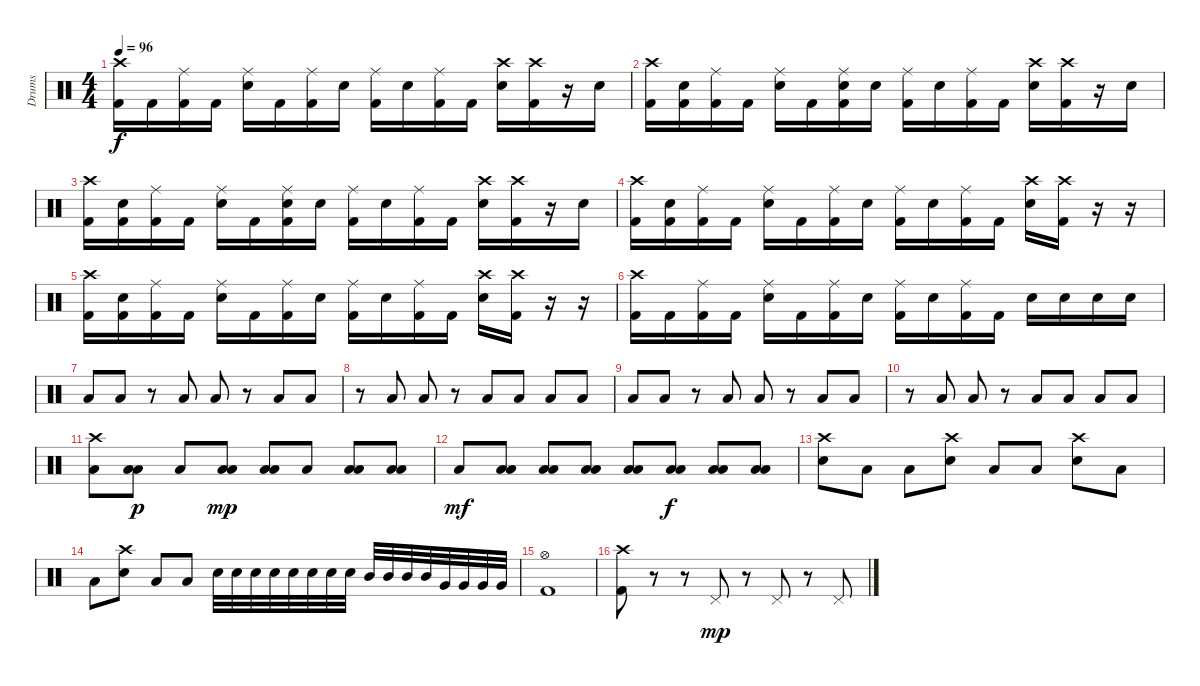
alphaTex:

\track ("Drums" "Drums") {instrument percussion}
\staff {score}
\articulation defaults
\ts (4 4)
\tempo 96
\clef neutral
\ks c
("Crash high (hit)" "Kick (hit) 2").16{dy f} "Kick (hit) 2".16 ("Ride (middle)" "Kick (hit) 2").16 "Kick (hit) 2".16 ("Ride (middle)" "Electric Snare (hit)").16 "Kick (hit) 2".16 ("Ride (middle)" "Kick (hit) 2").16 "Electric Snare (hit)".16 ("Ride (middle)" "Kick (hit) 2").16 "Electric Snare (hit)".16 ("Ride (middle)" "Kick (hit) 2").16 "Kick (hit) 2".16 ("Crash high (hit)" "Electric Snare (hit)").16 ("Crash high (hit)" "Kick (hit) 2").16 r.16 "Electric Snare (hit)".16 |
("Crash high (hit)" "Kick (hit) 2").16 ("Electric Snare (hit)" "Kick (hit) 2").16 ("Ride (middle)" "Kick (hit) 2").16 "Kick (hit) 2".16 ("Ride (middle)" "Electric Snare (hit)").16 "Kick (hit) 2".16 ("Ride (middle)" "Electric Snare (hit)" "Kick (hit) 2").16 "Electric Snare (hit)".16 ("Ride (middle)" "Kick (hit) 2").16 "Electric Snare (hit)".16 ("Ride (middle)" "Kick (hit) 2").16 "Kick (hit) 2".16 ("Crash high (hit)" "Electric Snare (hit)").16 ("Crash high (hit)" "Kick (hit) 2").16 r.16 "Electric Snare (hit)".16 |
("Crash high (hit)" "Kick (hit) 2").16 ("Electric Snare (hit)" "Kick (hit) 2").16 ("Ride (middle)" "Kick (hit) 2").16 "Kick (hit) 2".16 ("Ride (middle)" "Electric Snare (hit)").16 "Kick (hit) 2".16 ("Ride (middle)" "Electric Snare (hit)" "Kick (hit) 2").16 "Electric Snare (hit)".16 ("Ride (middle)" "Kick (hit) 2").16 "Electric Snare (hit)".16 ("Ride (middle)" "Kick (hit) 2").16 "Kick (hit) 2".16 ("Crash high (hit)" "Electric Snare (hit)").16 ("Crash high (hit)" "Kick (hit) 2").16 r.16 "Electric Snare (hit)".16 |
("Crash high (hit)" "Kick (hit) 2").16 ("Electric Snare (hit)" "Kick (hit) 2").16 ("Ride (middle)" "Kick (hit) 2").16 "Kick (hit) 2".16 ("Ride (middle)" "Electric Snare (hit)").16 "Kick (hit) 2".16 ("Ride (middle)" "Kick (hit) 2").16 "Electric Snare (hit)".16 ("Ride (middle)" "Kick (hit) 2").16 "Electric Snare (hit)".16 ("Ride (middle)" "Kick (hit) 2").16 "Kick (hit) 2".16 ("Crash high (hit)" "Electric Snare (hit)").16 ("Crash high (hit)" "Kick (hit) 2").16 r.16 r.16 |
("Crash high (hit)" "Kick (hit) 2").16 ("Electric Snare (hit)" "Kick (hit) 2").16 ("Ride (middle)" "Kick (hit) 2").16 "Kick (hit) 2".16 ("Ride (middle)" "Electric Snare (hit)").16 "Kick (hit) 2".16 ("Ride (middle)" "Kick (hit) 2").16 "Electric Snare (hit)".16 ("Ride (middle)" "Kick (hit) 2").16 "Electric Snare (hit)".16 ("Ride (middle)" "Kick (hit) 2").16 "Kick (hit) 2".16 ("Crash high (hit)" "Electric Snare (hit)").16 ("Crash high (hit)" "Kick (hit) 2").16 r.16 r.16 |
("Crash high (hit)" "Kick (hit) 2").16 "Kick (hit) 2".16 ("Ride (middle)" "Kick (hit) 2").16 "Kick (hit) 2".16 ("Ride (middle)" "Electric Snare (hit)").16 "Kick (hit) 2".16 ("Ride (middle)" "Kick (hit) 2").16 "Electric Snare (hit)".16 ("Ride (middle)" "Kick (hit) 2").16 "Electric Snare (hit)".16 ("Ride (middle)" "Kick (hit) 2").16 "Kick (hit) 2".16 "Electric Snare (hit)".16 "Electric Snare (hit)".16 "Electric Snare (hit)".16 "Electric Snare (hit)".16 |
"Low Floor Tom (hit)".8 "Low Floor Tom (hit)".8 r.8 "Low Floor Tom (hit)".8 "Low Floor Tom (hit)".8 r.8 "Low Floor Tom (hit)".8 "Low Floor Tom (hit)".8 |
r.8 "Low Floor Tom (hit)".8 "Low Floor Tom (hit)".8 r.8 "Low Floor Tom (hit)".8 "Low Floor Tom (hit)".8 "Low Floor Tom (hit)".8 "Low Floor Tom (hit)".8 |
"Low Floor Tom (hit)".8 "Low Floor Tom (hit)".8 r.8 "Low Floor Tom (hit)".8 "Low Floor Tom (hit)".8 r.8 "Low Floor Tom (hit)".8 "Low Floor Tom (hit)".8 |
r.8 "Low Floor Tom (hit)".8 "Low Floor Tom (hit)".8 r.8 "Low Floor Tom (hit)".8 "Low Floor Tom (hit)".8 "Low Floor Tom (hit)".8 "Low Floor Tom (hit)".8 |
("Crash high (hit)" "Low Floor Tom (hit)").8 ("Low Floor Tom (hit)" "Low Floor Tom (hit)").8{dy p} "Low Floor Tom (hit)".8 ("Low Floor Tom (hit)" "Low Floor Tom (hit)").8{dy mp} ("Low Floor Tom (hit)" "Low Floor Tom (hit)").8 "Low Floor Tom (hit)".8 ("Low Floor Tom (hit)" "Low Floor Tom (hit)").8 ("Low Floor Tom (hit)" "Low Floor Tom (hit)").8 |
"Low Floor Tom (hit)".8{dy mf} ("Low Floor Tom (hit)" "Low Floor Tom (hit)").8 ("Low Floor Tom (hit)" "Low Floor Tom (hit)").8 ("Low Floor Tom (hit)" "Low Floor Tom (hit)").8 ("Low Floor Tom (hit)" "Low Floor Tom (hit)").8 ("Low Floor Tom (hit)" "Low Floor Tom (hit)").8{dy f} ("Low Floor Tom (hit)" "Low Floor Tom (hit)").8 ("Low Floor Tom (hit)" "Low Floor Tom (hit)").8 |
("Crash high (hit)" "Electric Snare (hit)").8 "Low Floor Tom (hit)".8 "Low Floor Tom (hit)".8 ("Crash high (hit)" "Electric Snare (hit)").8 "Low Floor Tom (hit)".8 "Low Floor Tom (hit)".8 ("Crash high (hit)" "Electric Snare (hit)").8 "Low Floor Tom (hit)".8 |
"Low Floor Tom (hit)".8 ("Crash high (hit)" "Electric Snare (hit)").8 "Low Floor Tom (hit)".8 "Low Floor Tom (hit)".8 "Electric Snare (hit)".32 "Electric Snare (hit)".32 "Electric Snare (hit)".32 "Electric Snare (hit)".32 "Electric Snare (hit)".32 "Electric Snare (hit)".32 "Electric Snare (hit)".32 "Electric Snare (hit)".32 "Mid Tom (hit)".32 "Mid Tom (hit)".32 "Mid Tom (hit)".32 "Mid Tom (hit)".32 "Very Low Tom (hit)".32 "Very Low Tom (hit)".32 "Very Low Tom (hit)".32 "Very Low Tom (hit)".32 |
("Hi-Hat (open)" "Kick (hit) 2").1 |
("Crash high (hit)" "Kick (hit) 2").8 r.8 r.8 "Pedal Hi-Hat (hit)".8{dy mp} r.8 "Pedal Hi-Hat (hit)".8 r.8 "Pedal Hi-Hat (hit)".8
